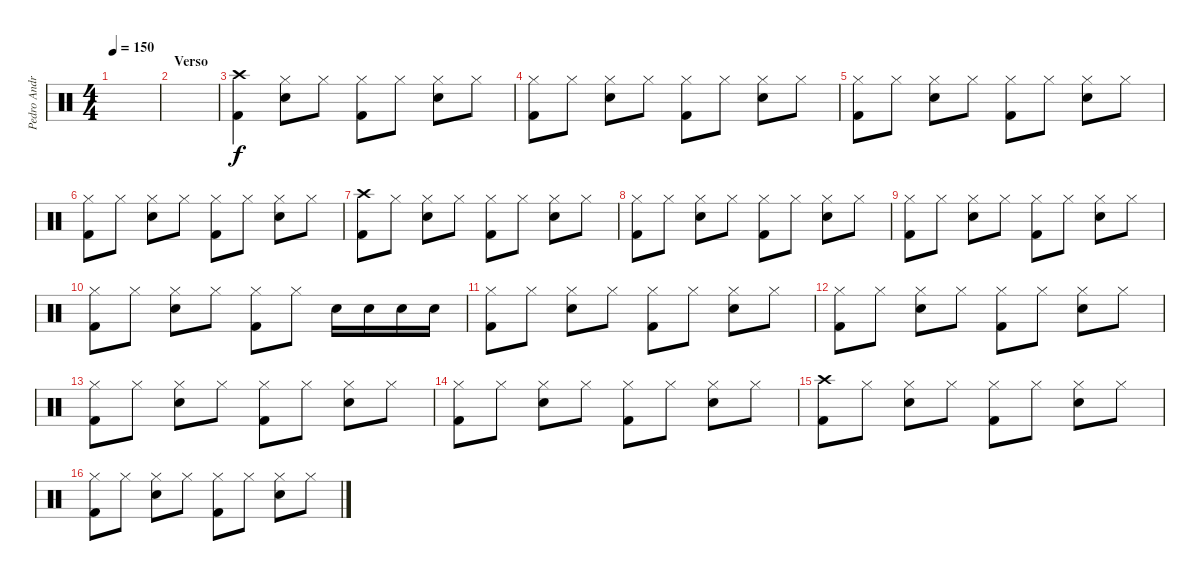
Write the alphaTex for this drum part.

\track ("Pedro Andreu" "Pedro Andr") {instrument percussion}
\staff {score}
\articulation defaults
\ts (4 4)
\tempo 150
\clef neutral
\ks c
|
\section ("" "Verso")
|
("Crash high (hit)" "Kick (hit) 2").4 ("Hi-Hat (closed)" "Snare (hit) 2").8 "Hi-Hat (closed)".8 ("Hi-Hat (closed)" "Kick (hit) 2").8 "Hi-Hat (closed)".8 ("Hi-Hat (closed)" "Snare (hit) 2").8 "Hi-Hat (closed)".8 |
("Hi-Hat (closed)" "Kick (hit) 2").8 "Hi-Hat (closed)".8 ("Hi-Hat (closed)" "Snare (hit) 2").8 "Hi-Hat (closed)".8 ("Hi-Hat (closed)" "Kick (hit) 2").8 "Hi-Hat (closed)".8 ("Hi-Hat (closed)" "Snare (hit) 2").8 "Hi-Hat (closed)".8 |
("Hi-Hat (closed)" "Kick (hit) 2").8 "Hi-Hat (closed)".8 ("Hi-Hat (closed)" "Snare (hit) 2").8 "Hi-Hat (closed)".8 ("Hi-Hat (closed)" "Kick (hit) 2").8 "Hi-Hat (closed)".8 ("Hi-Hat (closed)" "Snare (hit) 2").8 "Hi-Hat (closed)".8 |
("Hi-Hat (closed)" "Kick (hit) 2").8 "Hi-Hat (closed)".8 ("Hi-Hat (closed)" "Snare (hit) 2").8 "Hi-Hat (closed)".8 ("Hi-Hat (closed)" "Kick (hit) 2").8 "Hi-Hat (closed)".8 ("Hi-Hat (closed)" "Snare (hit) 2").8 "Hi-Hat (closed)".8 |
("Crash high (hit)" "Kick (hit) 2").8 "Hi-Hat (closed)".8 ("Hi-Hat (closed)" "Snare (hit) 2").8 "Hi-Hat (closed)".8 ("Hi-Hat (closed)" "Kick (hit) 2").8 "Hi-Hat (closed)".8 ("Hi-Hat (closed)" "Snare (hit) 2").8 "Hi-Hat (closed)".8 |
("Hi-Hat (closed)" "Kick (hit) 2").8 "Hi-Hat (closed)".8 ("Hi-Hat (closed)" "Snare (hit) 2").8 "Hi-Hat (closed)".8 ("Hi-Hat (closed)" "Kick (hit) 2").8 "Hi-Hat (closed)".8 ("Hi-Hat (closed)" "Snare (hit) 2").8 "Hi-Hat (closed)".8 |
("Hi-Hat (closed)" "Kick (hit) 2").8 "Hi-Hat (closed)".8 ("Hi-Hat (closed)" "Snare (hit) 2").8 "Hi-Hat (closed)".8 ("Hi-Hat (closed)" "Kick (hit) 2").8 "Hi-Hat (closed)".8 ("Hi-Hat (closed)" "Snare (hit) 2").8 "Hi-Hat (closed)".8 |
("Hi-Hat (closed)" "Kick (hit) 2").8 "Hi-Hat (closed)".8 ("Hi-Hat (closed)" "Snare (hit) 2").8 "Hi-Hat (closed)".8 ("Hi-Hat (closed)" "Kick (hit) 2").8 "Hi-Hat (closed)".8 "Snare (hit) 2".16 "Snare (hit) 2".16 "Snare (hit) 2".16 "Snare (hit) 2".16 |
("Hi-Hat (closed)" "Kick (hit) 2").8 "Hi-Hat (closed)".8 ("Hi-Hat (closed)" "Snare (hit) 2").8 "Hi-Hat (closed)".8 ("Hi-Hat (closed)" "Kick (hit) 2").8 "Hi-Hat (closed)".8 ("Hi-Hat (closed)" "Snare (hit) 2").8 "Hi-Hat (closed)".8 |
("Hi-Hat (closed)" "Kick (hit) 2").8 "Hi-Hat (closed)".8 ("Hi-Hat (closed)" "Snare (hit) 2").8 "Hi-Hat (closed)".8 ("Hi-Hat (closed)" "Kick (hit) 2").8 "Hi-Hat (closed)".8 ("Hi-Hat (closed)" "Snare (hit) 2").8 "Hi-Hat (closed)".8 |
("Hi-Hat (closed)" "Kick (hit) 2").8 "Hi-Hat (closed)".8 ("Hi-Hat (closed)" "Snare (hit) 2").8 "Hi-Hat (closed)".8 ("Hi-Hat (closed)" "Kick (hit) 2").8 "Hi-Hat (closed)".8 ("Hi-Hat (closed)" "Snare (hit) 2").8 "Hi-Hat (closed)".8 |
("Hi-Hat (closed)" "Kick (hit) 2").8 "Hi-Hat (closed)".8 ("Hi-Hat (closed)" "Snare (hit) 2").8 "Hi-Hat (closed)".8 ("Hi-Hat (closed)" "Kick (hit) 2").8 "Hi-Hat (closed)".8 ("Hi-Hat (closed)" "Snare (hit) 2").8 "Hi-Hat (closed)".8 |
("Crash high (hit)" "Kick (hit) 2").8 "Hi-Hat (closed)".8 ("Hi-Hat (closed)" "Snare (hit) 2").8 "Hi-Hat (closed)".8 ("Hi-Hat (closed)" "Kick (hit) 2").8 "Hi-Hat (closed)".8 ("Hi-Hat (closed)" "Snare (hit) 2").8 "Hi-Hat (closed)".8 |
("Hi-Hat (closed)" "Kick (hit) 2").8 "Hi-Hat (closed)".8 ("Hi-Hat (closed)" "Snare (hit) 2").8 "Hi-Hat (closed)".8 ("Hi-Hat (closed)" "Kick (hit) 2").8 "Hi-Hat (closed)".8 ("Hi-Hat (closed)" "Snare (hit) 2").8 "Hi-Hat (closed)".8
